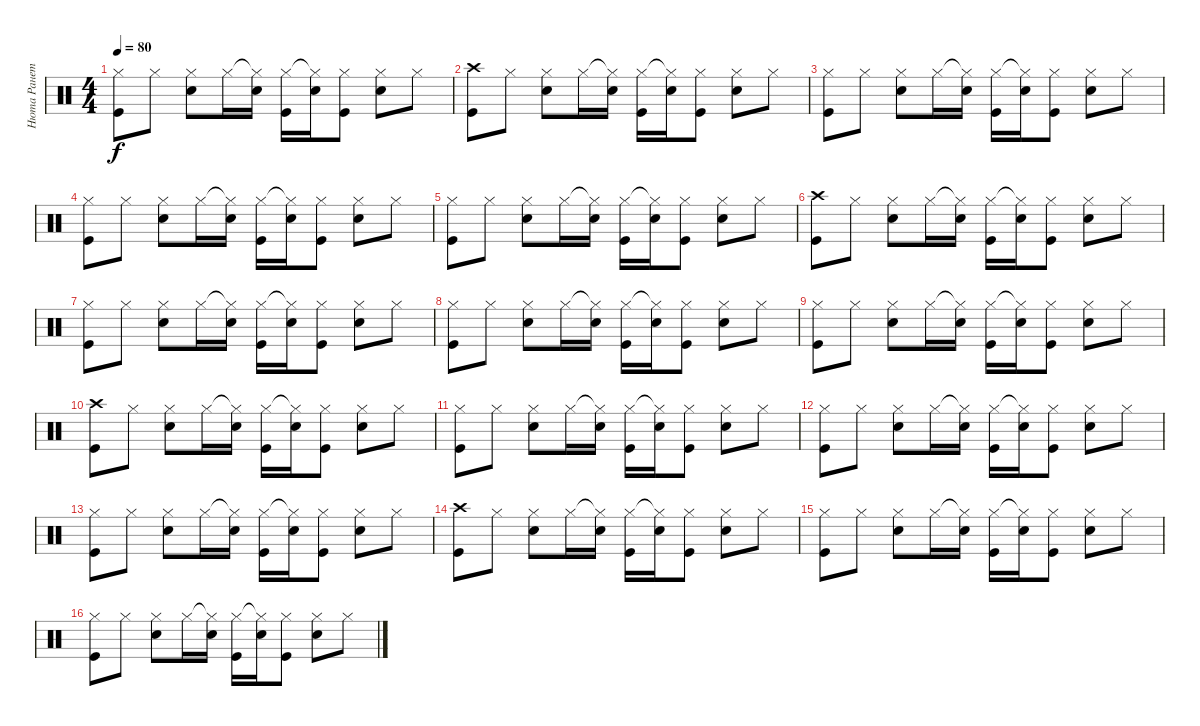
\track ("Нюта Ранетка" "Нюта Ранет") {instrument percussion}
\staff {score}
\articulation defaults
\ts (4 4)
\tempo 80
\clef neutral
\ks c
("Hi-Hat (closed)" "Kick (hit)").8{dy f} "Hi-Hat (closed)".8 ("Hi-Hat (closed)" "Electric Snare (hit)").8 "Hi-Hat (closed)".16 ("Hi-Hat (closed)"{t} "Electric Snare (hit)").16 ("Hi-Hat (closed)" "Kick (hit)").16 ("Hi-Hat (closed)"{t} "Electric Snare (hit)").16 ("Hi-Hat (closed)" "Kick (hit)").8 ("Hi-Hat (closed)" "Electric Snare (hit)").8 "Hi-Hat (closed)".8 |
("Crash high (hit)" "Kick (hit)").8 "Hi-Hat (closed)".8 ("Hi-Hat (closed)" "Electric Snare (hit)").8 "Hi-Hat (closed)".16 ("Hi-Hat (closed)"{t} "Electric Snare (hit)").16 ("Hi-Hat (closed)" "Kick (hit)").16 ("Hi-Hat (closed)"{t} "Electric Snare (hit)").16 ("Hi-Hat (closed)" "Kick (hit)").8 ("Hi-Hat (closed)" "Electric Snare (hit)").8 "Hi-Hat (closed)".8 |
("Hi-Hat (closed)" "Kick (hit)").8 "Hi-Hat (closed)".8 ("Hi-Hat (closed)" "Electric Snare (hit)").8 "Hi-Hat (closed)".16 ("Hi-Hat (closed)"{t} "Electric Snare (hit)").16 ("Hi-Hat (closed)" "Kick (hit)").16 ("Hi-Hat (closed)"{t} "Electric Snare (hit)").16 ("Hi-Hat (closed)" "Kick (hit)").8 ("Hi-Hat (closed)" "Electric Snare (hit)").8 "Hi-Hat (closed)".8 |
("Hi-Hat (closed)" "Kick (hit)").8 "Hi-Hat (closed)".8 ("Hi-Hat (closed)" "Electric Snare (hit)").8 "Hi-Hat (closed)".16 ("Hi-Hat (closed)"{t} "Electric Snare (hit)").16 ("Hi-Hat (closed)" "Kick (hit)").16 ("Hi-Hat (closed)"{t} "Electric Snare (hit)").16 ("Hi-Hat (closed)" "Kick (hit)").8 ("Hi-Hat (closed)" "Electric Snare (hit)").8 "Hi-Hat (closed)".8 |
("Hi-Hat (closed)" "Kick (hit)").8 "Hi-Hat (closed)".8 ("Hi-Hat (closed)" "Electric Snare (hit)").8 "Hi-Hat (closed)".16 ("Hi-Hat (closed)"{t} "Electric Snare (hit)").16 ("Hi-Hat (closed)" "Kick (hit)").16 ("Hi-Hat (closed)"{t} "Electric Snare (hit)").16 ("Hi-Hat (closed)" "Kick (hit)").8 ("Hi-Hat (closed)" "Electric Snare (hit)").8 "Hi-Hat (closed)".8 |
("Crash high (hit)" "Kick (hit)").8 "Hi-Hat (closed)".8 ("Hi-Hat (closed)" "Electric Snare (hit)").8 "Hi-Hat (closed)".16 ("Hi-Hat (closed)"{t} "Electric Snare (hit)").16 ("Hi-Hat (closed)" "Kick (hit)").16 ("Hi-Hat (closed)"{t} "Electric Snare (hit)").16 ("Hi-Hat (closed)" "Kick (hit)").8 ("Hi-Hat (closed)" "Electric Snare (hit)").8 "Hi-Hat (closed)".8 |
("Hi-Hat (closed)" "Kick (hit)").8 "Hi-Hat (closed)".8 ("Hi-Hat (closed)" "Electric Snare (hit)").8 "Hi-Hat (closed)".16 ("Hi-Hat (closed)"{t} "Electric Snare (hit)").16 ("Hi-Hat (closed)" "Kick (hit)").16 ("Hi-Hat (closed)"{t} "Electric Snare (hit)").16 ("Hi-Hat (closed)" "Kick (hit)").8 ("Hi-Hat (closed)" "Electric Snare (hit)").8 "Hi-Hat (closed)".8 |
("Hi-Hat (closed)" "Kick (hit)").8 "Hi-Hat (closed)".8 ("Hi-Hat (closed)" "Electric Snare (hit)").8 "Hi-Hat (closed)".16 ("Hi-Hat (closed)"{t} "Electric Snare (hit)").16 ("Hi-Hat (closed)" "Kick (hit)").16 ("Hi-Hat (closed)"{t} "Electric Snare (hit)").16 ("Hi-Hat (closed)" "Kick (hit)").8 ("Hi-Hat (closed)" "Electric Snare (hit)").8 "Hi-Hat (closed)".8 |
("Hi-Hat (closed)" "Kick (hit)").8 "Hi-Hat (closed)".8 ("Hi-Hat (closed)" "Electric Snare (hit)").8 "Hi-Hat (closed)".16 ("Hi-Hat (closed)"{t} "Electric Snare (hit)").16 ("Hi-Hat (closed)" "Kick (hit)").16 ("Hi-Hat (closed)"{t} "Electric Snare (hit)").16 ("Hi-Hat (closed)" "Kick (hit)").8 ("Hi-Hat (closed)" "Electric Snare (hit)").8 "Hi-Hat (closed)".8 |
("Crash high (hit)" "Kick (hit)").8 "Hi-Hat (closed)".8 ("Hi-Hat (closed)" "Electric Snare (hit)").8 "Hi-Hat (closed)".16 ("Hi-Hat (closed)"{t} "Electric Snare (hit)").16 ("Hi-Hat (closed)" "Kick (hit)").16 ("Hi-Hat (closed)"{t} "Electric Snare (hit)").16 ("Hi-Hat (closed)" "Kick (hit)").8 ("Hi-Hat (closed)" "Electric Snare (hit)").8 "Hi-Hat (closed)".8 |
("Hi-Hat (closed)" "Kick (hit)").8 "Hi-Hat (closed)".8 ("Hi-Hat (closed)" "Electric Snare (hit)").8 "Hi-Hat (closed)".16 ("Hi-Hat (closed)"{t} "Electric Snare (hit)").16 ("Hi-Hat (closed)" "Kick (hit)").16 ("Hi-Hat (closed)"{t} "Electric Snare (hit)").16 ("Hi-Hat (closed)" "Kick (hit)").8 ("Hi-Hat (closed)" "Electric Snare (hit)").8 "Hi-Hat (closed)".8 |
("Hi-Hat (closed)" "Kick (hit)").8 "Hi-Hat (closed)".8 ("Hi-Hat (closed)" "Electric Snare (hit)").8 "Hi-Hat (closed)".16 ("Hi-Hat (closed)"{t} "Electric Snare (hit)").16 ("Hi-Hat (closed)" "Kick (hit)").16 ("Hi-Hat (closed)"{t} "Electric Snare (hit)").16 ("Hi-Hat (closed)" "Kick (hit)").8 ("Hi-Hat (closed)" "Electric Snare (hit)").8 "Hi-Hat (closed)".8 |
("Hi-Hat (closed)" "Kick (hit)").8 "Hi-Hat (closed)".8 ("Hi-Hat (closed)" "Electric Snare (hit)").8 "Hi-Hat (closed)".16 ("Hi-Hat (closed)"{t} "Electric Snare (hit)").16 ("Hi-Hat (closed)" "Kick (hit)").16 ("Hi-Hat (closed)"{t} "Electric Snare (hit)").16 ("Hi-Hat (closed)" "Kick (hit)").8 ("Hi-Hat (closed)" "Electric Snare (hit)").8 "Hi-Hat (closed)".8 |
("Crash high (hit)" "Kick (hit)").8 "Hi-Hat (closed)".8 ("Hi-Hat (closed)" "Electric Snare (hit)").8 "Hi-Hat (closed)".16 ("Hi-Hat (closed)"{t} "Electric Snare (hit)").16 ("Hi-Hat (closed)" "Kick (hit)").16 ("Hi-Hat (closed)"{t} "Electric Snare (hit)").16 ("Hi-Hat (closed)" "Kick (hit)").8 ("Hi-Hat (closed)" "Electric Snare (hit)").8 "Hi-Hat (closed)".8 |
("Hi-Hat (closed)" "Kick (hit)").8 "Hi-Hat (closed)".8 ("Hi-Hat (closed)" "Electric Snare (hit)").8 "Hi-Hat (closed)".16 ("Hi-Hat (closed)"{t} "Electric Snare (hit)").16 ("Hi-Hat (closed)" "Kick (hit)").16 ("Hi-Hat (closed)"{t} "Electric Snare (hit)").16 ("Hi-Hat (closed)" "Kick (hit)").8 ("Hi-Hat (closed)" "Electric Snare (hit)").8 "Hi-Hat (closed)".8 |
("Hi-Hat (closed)" "Kick (hit)").8 "Hi-Hat (closed)".8 ("Hi-Hat (closed)" "Electric Snare (hit)").8 "Hi-Hat (closed)".16 ("Hi-Hat (closed)"{t} "Electric Snare (hit)").16 ("Hi-Hat (closed)" "Kick (hit)").16 ("Hi-Hat (closed)"{t} "Electric Snare (hit)").16 ("Hi-Hat (closed)" "Kick (hit)").8 ("Hi-Hat (closed)" "Electric Snare (hit)").8 "Hi-Hat (closed)".8
